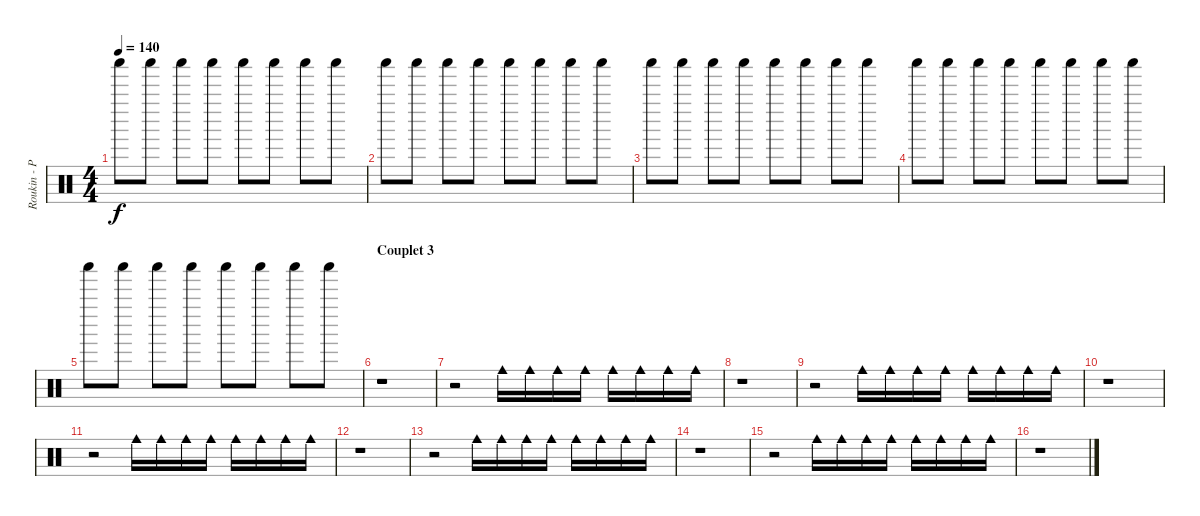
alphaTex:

\track ("Roukin - Percus" "Roukin - P") {instrument percussion}
\staff {score}
\articulation defaults
\ts (4 4)
\tempo 140
\clef neutral
\ks c "Shaker (hit)".8{dy f} "Shaker (hit)".8 "Shaker (hit)".8 "Shaker (hit)".8 "Shaker (hit)".8 "Shaker (hit)".8 "Shaker (hit)".8 "Shaker (hit)".8
|
"Shaker (hit)".8 "Shaker (hit)".8 "Shaker (hit)".8 "Shaker (hit)".8 "Shaker (hit)".8 "Shaker (hit)".8 "Shaker (hit)".8 "Shaker (hit)".8 |
"Shaker (hit)".8 "Shaker (hit)".8 "Shaker (hit)".8 "Shaker (hit)".8 "Shaker (hit)".8 "Shaker (hit)".8 "Shaker (hit)".8 "Shaker (hit)".8 |
"Shaker (hit)".8 "Shaker (hit)".8 "Shaker (hit)".8 "Shaker (hit)".8 "Shaker (hit)".8 "Shaker (hit)".8 "Shaker (hit)".8 "Shaker (hit)".8 |
"Shaker (hit)".8 "Shaker (hit)".8 "Shaker (hit)".8 "Shaker (hit)".8 "Shaker (hit)".8 "Shaker (hit)".8 "Shaker (hit)".8 "Shaker (hit)".8 |
\section ("" "Couplet 3")
r.1 |
r.2 "Cowbell medium (hit)".16 "Cowbell medium (hit)".16 "Cowbell medium (hit)".16 "Cowbell medium (hit)".16 "Cowbell medium (hit)".16 "Cowbell medium (hit)".16 "Cowbell medium (hit)".16 "Cowbell medium (hit)".16 |
r.1 |
r.2 "Cowbell medium (hit)".16 "Cowbell medium (hit)".16 "Cowbell medium (hit)".16 "Cowbell medium (hit)".16 "Cowbell medium (hit)".16 "Cowbell medium (hit)".16 "Cowbell medium (hit)".16 "Cowbell medium (hit)".16 |
r.1 |
r.2 "Cowbell medium (hit)".16 "Cowbell medium (hit)".16 "Cowbell medium (hit)".16 "Cowbell medium (hit)".16 "Cowbell medium (hit)".16 "Cowbell medium (hit)".16 "Cowbell medium (hit)".16 "Cowbell medium (hit)".16 |
r.1 |
r.2 "Cowbell medium (hit)".16 "Cowbell medium (hit)".16 "Cowbell medium (hit)".16 "Cowbell medium (hit)".16 "Cowbell medium (hit)".16 "Cowbell medium (hit)".16 "Cowbell medium (hit)".16 "Cowbell medium (hit)".16 |
r.1 |
r.2 "Cowbell medium (hit)".16 "Cowbell medium (hit)".16 "Cowbell medium (hit)".16 "Cowbell medium (hit)".16 "Cowbell medium (hit)".16 "Cowbell medium (hit)".16 "Cowbell medium (hit)".16 "Cowbell medium (hit)".16 |
r.1
